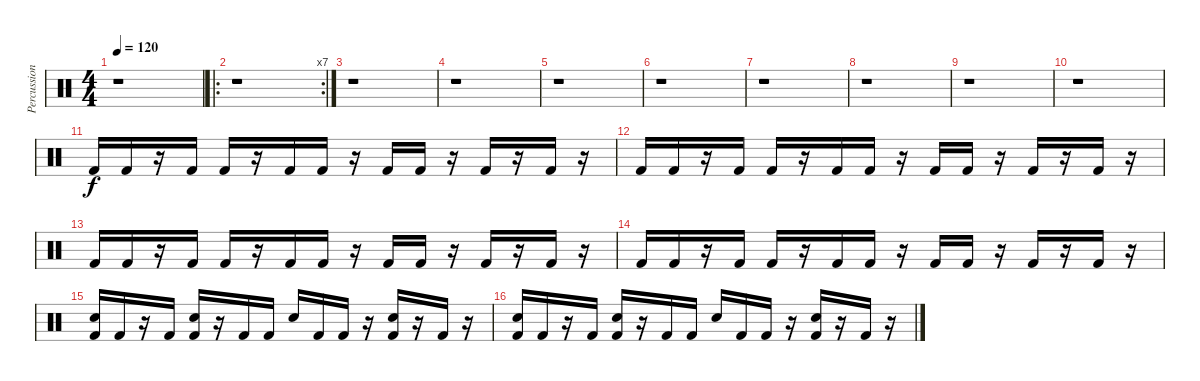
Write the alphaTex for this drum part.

\track ("Percussion" "Percussion") {instrument percussion}
\staff {score}
\articulation defaults
\ts (4 4)
\tempo 120
\clef neutral
\ks c
r.1{dy f} |
\ro
\rc 7
r.1 |
r.1 |
r.1 |
r.1 |
r.1 |
r.1 |
r.1 |
r.1 |
r.1 |
"Kick (hit) 2".16 "Kick (hit) 2".16 r.16 "Kick (hit) 2".16 "Kick (hit) 2".16 r.16 "Kick (hit) 2".16 "Kick (hit) 2".16 r.16 "Kick (hit) 2".16 "Kick (hit) 2".16 r.16 "Kick (hit) 2".16 r.16 "Kick (hit) 2".16 r.16 |
"Kick (hit) 2".16 "Kick (hit) 2".16 r.16 "Kick (hit) 2".16 "Kick (hit) 2".16 r.16 "Kick (hit) 2".16 "Kick (hit) 2".16 r.16 "Kick (hit) 2".16 "Kick (hit) 2".16 r.16 "Kick (hit) 2".16 r.16 "Kick (hit) 2".16 r.16 |
"Kick (hit) 2".16 "Kick (hit) 2".16 r.16 "Kick (hit) 2".16 "Kick (hit) 2".16 r.16 "Kick (hit) 2".16 "Kick (hit) 2".16 r.16 "Kick (hit) 2".16 "Kick (hit) 2".16 r.16 "Kick (hit) 2".16 r.16 "Kick (hit) 2".16 r.16 |
"Kick (hit) 2".16 "Kick (hit) 2".16 r.16 "Kick (hit) 2".16 "Kick (hit) 2".16 r.16 "Kick (hit) 2".16 "Kick (hit) 2".16 r.16 "Kick (hit) 2".16 "Kick (hit) 2".16 r.16 "Kick (hit) 2".16 r.16 "Kick (hit) 2".16 r.16 |
("Kick (hit) 2" "Electric Snare (hit)").16 "Kick (hit) 2".16 r.16 "Kick (hit) 2".16 ("Kick (hit) 2" "Electric Snare (hit)").16 r.16 "Kick (hit) 2".16 "Kick (hit) 2".16 "Electric Snare (hit)".16 "Kick (hit) 2".16 "Kick (hit) 2".16 r.16 ("Kick (hit) 2" "Electric Snare (hit)").16 r.16 "Kick (hit) 2".16 r.16 |
("Kick (hit) 2" "Electric Snare (hit)").16 "Kick (hit) 2".16 r.16 "Kick (hit) 2".16 ("Kick (hit) 2" "Electric Snare (hit)").16 r.16 "Kick (hit) 2".16 "Kick (hit) 2".16 "Electric Snare (hit)".16 "Kick (hit) 2".16 "Kick (hit) 2".16 r.16 ("Kick (hit) 2" "Electric Snare (hit)").16 r.16 "Kick (hit) 2".16 r.16
